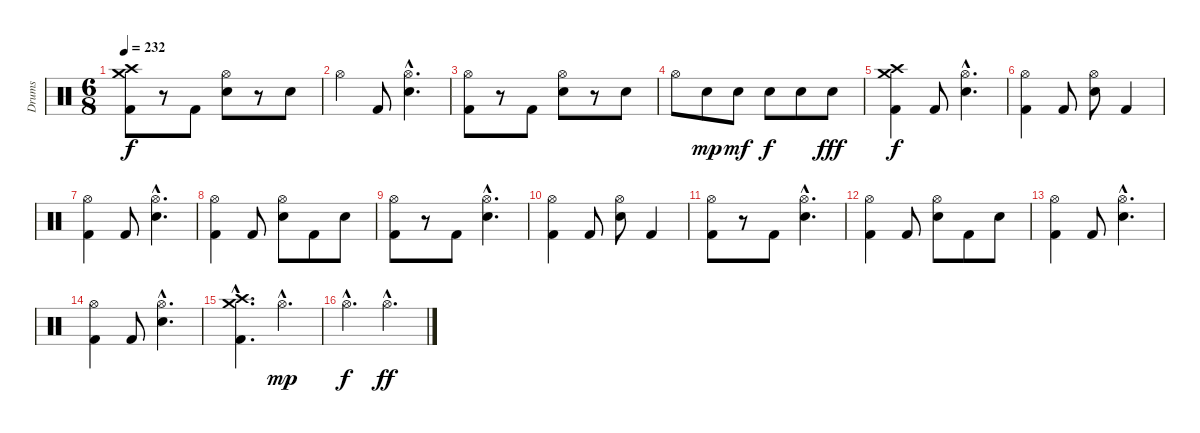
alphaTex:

\track ("Drums" "Drums") {instrument percussion}
\staff {score}
\articulation defaults
\ts (6 8)
\tempo 232
\clef neutral
\ks c
("Crash medium (hit)" "Crash high (hit)" "Kick (hit) 2").8{dy f} r.8 "Kick (hit) 2".8 ("Hi-Hat (open)" "Snare (hit) 2").8 r.8 "Snare (hit) 2".8 |
"Hi-Hat (open)".4 "Kick (hit) 2".8 ("Hi-Hat (open)"{hac} "Snare (hit) 2"{hac}).4{d} |
("Hi-Hat (open)" "Kick (hit) 2").8 r.8 "Kick (hit) 2".8 ("Hi-Hat (open)" "Snare (hit) 2").8 r.8 "Snare (hit) 2".8 |
"Hi-Hat (open)".8 "Snare (hit) 2".8{dy mp} "Snare (hit) 2".8{dy mf} "Snare (hit) 2".8{dy f} "Snare (hit) 2".8 "Snare (hit) 2".8{dy fff} |
("Crash medium (hit)" "Crash high (hit)" "Kick (hit) 2").4{dy f} "Kick (hit) 2".8 ("Hi-Hat (open)"{hac} "Snare (hit) 2"{hac}).4{d} |
("Hi-Hat (open)" "Kick (hit) 2").4 "Kick (hit) 2".8 ("Hi-Hat (open)" "Snare (hit) 2").8 "Kick (hit) 2".4 |
("Hi-Hat (open)" "Kick (hit) 2").4 "Kick (hit) 2".8 ("Hi-Hat (open)"{hac} "Snare (hit) 2"{hac}).4{d} |
("Hi-Hat (open)" "Kick (hit) 2").4 "Kick (hit) 2".8 ("Hi-Hat (open)" "Snare (hit) 2").8 "Kick (hit) 2".8 "Snare (hit) 2".8 |
("Hi-Hat (open)" "Kick (hit) 2").8 r.8 "Kick (hit) 2".8 ("Hi-Hat (open)"{hac} "Snare (hit) 2"{hac}).4{d} |
("Hi-Hat (open)" "Kick (hit) 2").4 "Kick (hit) 2".8 ("Hi-Hat (open)" "Snare (hit) 2").8 "Kick (hit) 2".4 |
("Hi-Hat (open)" "Kick (hit) 2").8 r.8 "Kick (hit) 2".8 ("Hi-Hat (open)"{hac} "Snare (hit) 2"{hac}).4{d} |
("Hi-Hat (open)" "Kick (hit) 2").4 "Kick (hit) 2".8 ("Hi-Hat (open)" "Snare (hit) 2").8 "Kick (hit) 2".8 "Snare (hit) 2".8 |
("Hi-Hat (open)" "Kick (hit) 2").4 "Kick (hit) 2".8 ("Hi-Hat (open)"{hac} "Snare (hit) 2"{hac}).4{d} |
("Hi-Hat (open)" "Kick (hit) 2").4 "Kick (hit) 2".8 ("Hi-Hat (open)"{hac} "Snare (hit) 2"{hac}).4{d} |
("Crash medium (hit)"{hac} "Crash high (hit)"{hac} "Kick (hit) 2"{hac}).4{d} "Hi-Hat (open)"{hac}.4{d dy mp} |
"Hi-Hat (open)"{hac}.4{d dy f} "Hi-Hat (open)"{hac}.4{d dy ff}
